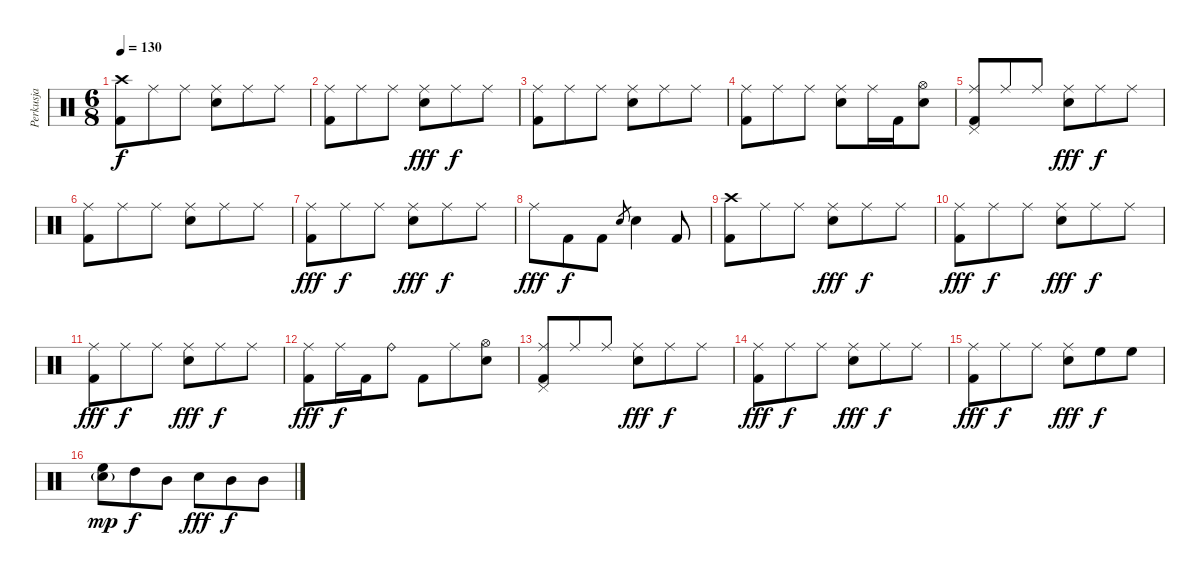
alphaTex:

\track ("Perkusja" "Perkusja") {instrument percussion}
\staff {score}
\articulation defaults
\ts (6 8)
\tempo 130
\clef neutral
\ks c
("Crash high (hit)" "Kick (hit) 2").8{dy f} "Ride (middle)".8 "Ride (middle)".8 ("Ride (middle)" "Electric Snare (hit)").8 "Ride (middle)".8 "Ride (middle)".8 |
("Ride (middle)" "Kick (hit) 2").8 "Ride (middle)".8 "Ride (middle)".8 ("Ride (middle)" "Electric Snare (hit)").8{dy fff} "Ride (middle)".8{dy f} "Ride (middle)".8 |
("Ride (middle)" "Kick (hit) 2").8 "Ride (middle)".8 "Ride (middle)".8 ("Ride (middle)" "Electric Snare (hit)").8 "Ride (middle)".8 "Ride (middle)".8 |
("Ride (middle)" "Kick (hit) 2").8 "Ride (middle)".8 "Ride (middle)".8 ("Ride (middle)" "Electric Snare (hit)").8 "Ride (middle)".16 "Kick (hit) 2".16 ("Hi-Hat (open)" "Electric Snare (hit)").8 |
("Ride (middle)" "Pedal Hi-Hat (hit)" "Kick (hit) 2").8 "Ride (middle)".8 "Ride (middle)".8 ("Ride (middle)" "Electric Snare (hit)").8{dy fff} "Ride (middle)".8{dy f} "Ride (middle)".8 |
("Ride (middle)" "Kick (hit) 2").8 "Ride (middle)".8 "Ride (middle)".8 ("Ride (middle)" "Electric Snare (hit)").8 "Ride (middle)".8 "Ride (middle)".8 |
("Ride (middle)" "Kick (hit) 2").8{dy fff} "Ride (middle)".8{dy f} "Ride (middle)".8 ("Ride (middle)" "Electric Snare (hit)").8{dy fff} "Ride (middle)".8{dy f} "Ride (middle)".8 |
"Ride (middle)".8{dy fff} "Kick (hit) 2".8{dy f} "Kick (hit) 2".8 "Electric Snare (hit)".8{gr} "Electric Snare (hit)".4 "Kick (hit) 2".8 |
("Crash high (hit)" "Kick (hit) 2").8 "Ride (middle)".8 "Ride (middle)".8 ("Ride (middle)" "Electric Snare (hit)").8{dy fff} "Ride (middle)".8{dy f} "Ride (middle)".8 |
("Ride (middle)" "Kick (hit) 2").8{dy fff} "Ride (middle)".8{dy f} "Ride (middle)".8 ("Ride (middle)" "Electric Snare (hit)").8{dy fff} "Ride (middle)".8{dy f} "Ride (middle)".8 |
("Ride (middle)" "Kick (hit) 2").8{dy fff} "Ride (middle)".8{dy f} "Ride (middle)".8 ("Ride (middle)" "Electric Snare (hit)").8{dy fff} "Ride (middle)".8{dy f} "Ride (middle)".8 |
("Ride (middle)" "Kick (hit) 2").8{dy fff} "Ride (middle)".16{dy f} "Kick (hit) 2".16 "Ride (bell)".8 "Kick (hit) 2".8 "Ride (middle)".8 ("Hi-Hat (open)" "Electric Snare (hit)").8 |
("Ride (middle)" "Pedal Hi-Hat (hit)" "Kick (hit) 2").8 "Ride (middle)".8 "Ride (middle)".8 ("Ride (middle)" "Electric Snare (hit)").8{dy fff} "Ride (middle)".8{dy f} "Ride (middle)".8 |
("Ride (middle)" "Kick (hit) 2").8{dy fff} "Ride (middle)".8{dy f} "Ride (middle)".8 ("Ride (middle)" "Electric Snare (hit)").8{dy fff} "Ride (middle)".8{dy f} "Ride (middle)".8 |
("Ride (middle)" "Kick (hit) 2").8{dy fff} "Ride (middle)".8{dy f} "Ride (middle)".8 ("Ride (middle)" "Electric Snare (hit)").8{dy fff} "High Floor Tom (hit)".8{dy f} "High Floor Tom (hit)".8 |
("High Floor Tom (hit)" "Electric Snare (hit)"{g}).8{dy mp} "High Tom (hit)".8{dy f} "Mid Tom (hit)".8 "Electric Snare (hit)".8{dy fff} "Mid Tom (hit)".8{dy f} "Mid Tom (hit)".8
